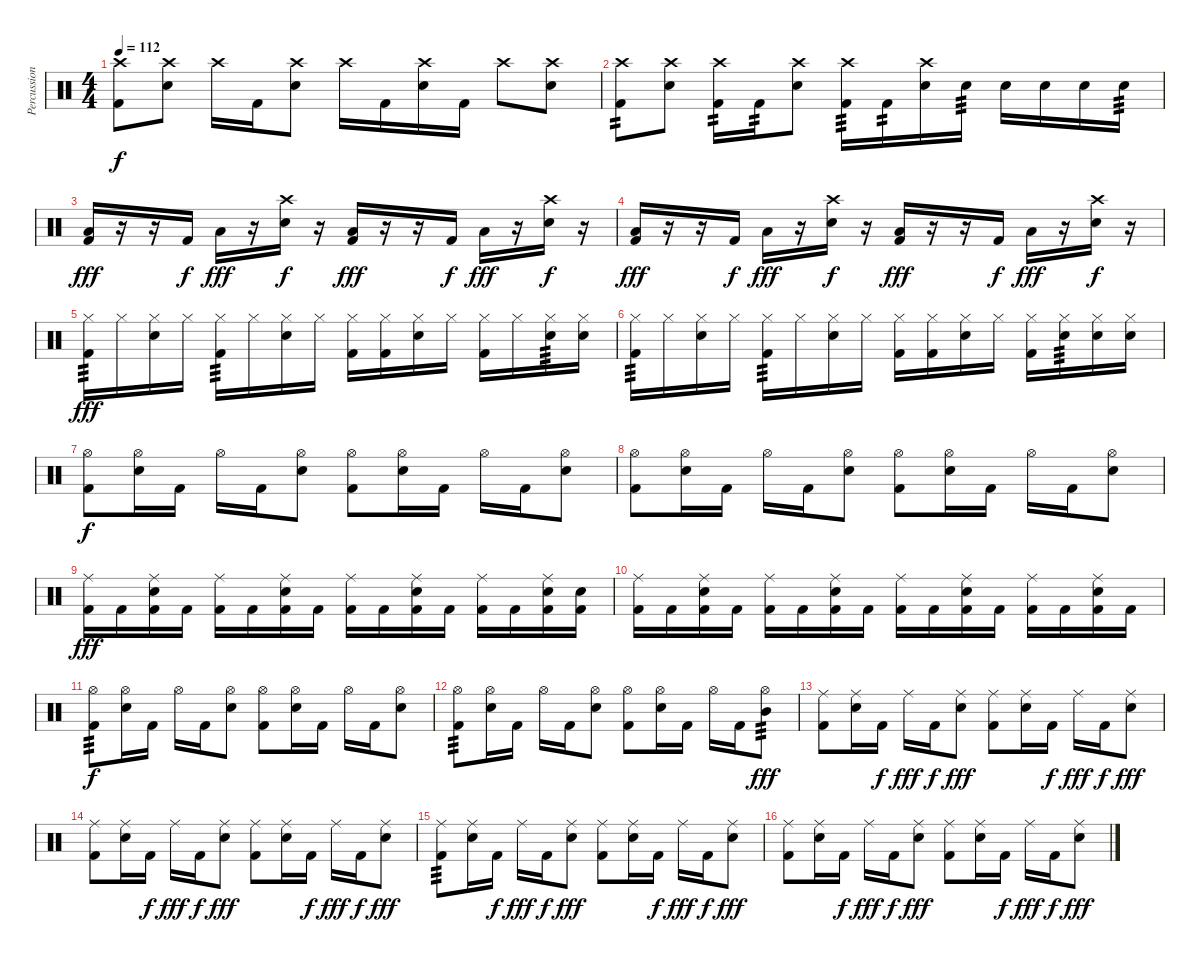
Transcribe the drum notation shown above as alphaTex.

\track ("Percussion" "Percussion") {instrument percussion}
\staff {score}
\articulation defaults
\ts (4 4)
\tempo 112
\clef neutral
\ks c
("Crash high (hit)" "Kick (hit) 2").8{dy f} ("Crash high (hit)" "Electric Snare (hit)").8 "Crash high (hit)".16 "Kick (hit) 2".16 ("Crash high (hit)" "Electric Snare (hit)").8 "Crash high (hit)".16 "Kick (hit) 2".16 ("Crash high (hit)" "Electric Snare (hit)").16 "Kick (hit) 2".16 "Crash high (hit)".8 ("Crash high (hit)" "Electric Snare (hit)").8 |
("Crash high (hit)" "Kick (hit) 2").8{tp 2} ("Crash high (hit)" "Electric Snare (hit)").8 ("Crash high (hit)" "Kick (hit) 2").16{tp 2} "Kick (hit) 2".16{tp 2} ("Crash high (hit)" "Electric Snare (hit)").8 ("Crash high (hit)" "Kick (hit) 2").16{tp 3} "Kick (hit) 2".16{tp 2} ("Crash high (hit)" "Electric Snare (hit)").16 "Electric Snare (hit)".16{tp 3} "Electric Snare (hit)".16 "Electric Snare (hit)".16 "Electric Snare (hit)".16 "Electric Snare (hit)".16{tp 3} |
("Low Tom (hit)" "Kick (hit) 2").16{dy fff} r.16 r.16 "Kick (hit) 2".16{dy f} "Low Tom (hit)".16{dy fff} r.16 ("Crash high (hit)" "Electric Snare (hit)").16{dy f} r.16 ("Low Tom (hit)" "Kick (hit) 2").16{dy fff} r.16 r.16 "Kick (hit) 2".16{dy f} "Low Tom (hit)".16{dy fff} r.16 ("Crash high (hit)" "Electric Snare (hit)").16{dy f} r.16 |
("Low Tom (hit)" "Kick (hit) 2").16{dy fff} r.16 r.16 "Kick (hit) 2".16{dy f} "Low Tom (hit)".16{dy fff} r.16 ("Crash high (hit)" "Electric Snare (hit)").16{dy f} r.16 ("Low Tom (hit)" "Kick (hit) 2").16{dy fff} r.16 r.16 "Kick (hit) 2".16{dy f} "Low Tom (hit)".16{dy fff} r.16 ("Crash high (hit)" "Electric Snare (hit)").16{dy f} r.16 |
("Hi-Hat (closed)" "Kick (hit) 2").16{tp 3 dy fff} "Hi-Hat (closed)".16 ("Hi-Hat (closed)" "Electric Snare (hit)").16 "Hi-Hat (closed)".16 ("Hi-Hat (closed)" "Kick (hit) 2").16{tp 3} "Hi-Hat (closed)".16 ("Hi-Hat (closed)" "Electric Snare (hit)").16 "Hi-Hat (closed)".16 ("Hi-Hat (closed)" "Kick (hit) 2").16 ("Hi-Hat (closed)" "Kick (hit) 2").16 ("Hi-Hat (closed)" "Electric Snare (hit)").16 "Hi-Hat (closed)".16 ("Hi-Hat (closed)" "Kick (hit) 2").16 "Hi-Hat (closed)".16 ("Hi-Hat (closed)" "Electric Snare (hit)").16{tp 3} ("Hi-Hat (closed)" "Electric Snare (hit)").16 |
("Hi-Hat (closed)" "Kick (hit) 2").16{tp 3} "Hi-Hat (closed)".16 ("Hi-Hat (closed)" "Electric Snare (hit)").16 "Hi-Hat (closed)".16 ("Hi-Hat (closed)" "Kick (hit) 2").16{tp 3} "Hi-Hat (closed)".16 ("Hi-Hat (closed)" "Electric Snare (hit)").16 "Hi-Hat (closed)".16 ("Hi-Hat (closed)" "Kick (hit) 2").16 ("Hi-Hat (closed)" "Kick (hit) 2").16 ("Hi-Hat (closed)" "Electric Snare (hit)").16 "Hi-Hat (closed)".16 ("Hi-Hat (closed)" "Kick (hit) 2").16 ("Hi-Hat (closed)" "Electric Snare (hit)").16{tp 3} ("Hi-Hat (closed)" "Electric Snare (hit)").16 ("Hi-Hat (closed)" "Electric Snare (hit)").16 |
("Hi-Hat (open)" "Kick (hit) 2").8{dy f} ("Hi-Hat (open)" "Electric Snare (hit)").16 "Kick (hit) 2".16 "Hi-Hat (open)".16 "Kick (hit) 2".16 ("Electric Snare (hit)" "Hi-Hat (open)").8 ("Hi-Hat (open)" "Kick (hit) 2").8 ("Hi-Hat (open)" "Electric Snare (hit)").16 "Kick (hit) 2".16 "Hi-Hat (open)".16 "Kick (hit) 2".16 ("Electric Snare (hit)" "Hi-Hat (open)").8 |
("Hi-Hat (open)" "Kick (hit) 2").8 ("Hi-Hat (open)" "Electric Snare (hit)").16 "Kick (hit) 2".16 "Hi-Hat (open)".16 "Kick (hit) 2".16 ("Electric Snare (hit)" "Hi-Hat (open)").8 ("Hi-Hat (open)" "Kick (hit) 2").8 ("Hi-Hat (open)" "Electric Snare (hit)").16 "Kick (hit) 2".16 "Hi-Hat (open)".16 "Kick (hit) 2".16 ("Electric Snare (hit)" "Hi-Hat (open)").8 |
("Ride (middle)" "Kick (hit) 2").16{dy fff} "Kick (hit) 2".16 ("Ride (middle)" "Electric Snare (hit)" "Kick (hit) 2").16 "Kick (hit) 2".16 ("Ride (middle)" "Kick (hit) 2").16 "Kick (hit) 2".16 ("Ride (middle)" "Electric Snare (hit)" "Kick (hit) 2").16 "Kick (hit) 2".16 ("Ride (middle)" "Kick (hit) 2").16 "Kick (hit) 2".16 ("Ride (middle)" "Electric Snare (hit)" "Kick (hit) 2").16 "Kick (hit) 2".16 ("Ride (middle)" "Kick (hit) 2").16 "Kick (hit) 2".16 ("Ride (middle)" "Electric Snare (hit)" "Kick (hit) 2").16 ("Electric Snare (hit)" "Kick (hit) 2").16 |
("Ride (middle)" "Kick (hit) 2").16 "Kick (hit) 2".16 ("Ride (middle)" "Electric Snare (hit)" "Kick (hit) 2").16 "Kick (hit) 2".16 ("Ride (middle)" "Kick (hit) 2").16 "Kick (hit) 2".16 ("Ride (middle)" "Electric Snare (hit)" "Kick (hit) 2").16 "Kick (hit) 2".16 ("Ride (middle)" "Kick (hit) 2").16 "Kick (hit) 2".16 ("Ride (middle)" "Electric Snare (hit)" "Kick (hit) 2").16 "Kick (hit) 2".16 ("Ride (middle)" "Kick (hit) 2").16 "Kick (hit) 2".16 ("Ride (middle)" "Electric Snare (hit)" "Kick (hit) 2").16 "Kick (hit) 2".16 |
("Hi-Hat (open)" "Kick (hit) 2").8{tp 3 dy f} ("Hi-Hat (open)" "Electric Snare (hit)").16 "Kick (hit) 2".16 "Hi-Hat (open)".16 "Kick (hit) 2".16 ("Electric Snare (hit)" "Hi-Hat (open)").8 ("Hi-Hat (open)" "Kick (hit) 2").8 ("Hi-Hat (open)" "Electric Snare (hit)").16 "Kick (hit) 2".16 "Hi-Hat (open)".16 "Kick (hit) 2".16 ("Electric Snare (hit)" "Hi-Hat (open)").8 |
("Hi-Hat (open)" "Kick (hit) 2").8{tp 3} ("Hi-Hat (open)" "Electric Snare (hit)").16 "Kick (hit) 2".16 "Hi-Hat (open)".16 "Kick (hit) 2".16 ("Electric Snare (hit)" "Hi-Hat (open)").8 ("Hi-Hat (open)" "Kick (hit) 2").8 ("Hi-Hat (open)" "Electric Snare (hit)").16 "Kick (hit) 2".16 "Hi-Hat (open)".16 "Kick (hit) 2".16 ("Mid Tom (hit)" "Hi-Hat (open)").8{tp 3 dy fff} |
("Ride (middle)" "Kick (hit) 2").8 ("Ride (middle)" "Electric Snare (hit)").16 "Kick (hit) 2".16{dy f} "Ride (middle)".16{dy fff} "Kick (hit) 2".16{dy f} ("Electric Snare (hit)" "Ride (middle)").8{dy fff} ("Ride (middle)" "Kick (hit) 2").8 ("Ride (middle)" "Electric Snare (hit)").16 "Kick (hit) 2".16{dy f} "Ride (middle)".16{dy fff} "Kick (hit) 2".16{dy f} ("Electric Snare (hit)" "Ride (middle)").8{dy fff} |
("Ride (middle)" "Kick (hit) 2").8 ("Ride (middle)" "Electric Snare (hit)").16 "Kick (hit) 2".16{dy f} "Ride (middle)".16{dy fff} "Kick (hit) 2".16{dy f} ("Electric Snare (hit)" "Ride (middle)").8{dy fff} ("Ride (middle)" "Kick (hit) 2").8 ("Ride (middle)" "Electric Snare (hit)").16 "Kick (hit) 2".16{dy f} "Ride (middle)".16{dy fff} "Kick (hit) 2".16{dy f} ("Electric Snare (hit)" "Ride (middle)").8{dy fff} |
("Ride (middle)" "Kick (hit) 2").8{tp 3} ("Ride (middle)" "Electric Snare (hit)").16 "Kick (hit) 2".16{dy f} "Ride (middle)".16{dy fff} "Kick (hit) 2".16{dy f} ("Electric Snare (hit)" "Ride (middle)").8{dy fff} ("Ride (middle)" "Kick (hit) 2").8 ("Ride (middle)" "Electric Snare (hit)").16 "Kick (hit) 2".16{dy f} "Ride (middle)".16{dy fff} "Kick (hit) 2".16{dy f} ("Electric Snare (hit)" "Ride (middle)").8{dy fff} |
("Ride (middle)" "Kick (hit) 2").8 ("Ride (middle)" "Electric Snare (hit)").16 "Kick (hit) 2".16{dy f} "Ride (middle)".16{dy fff} "Kick (hit) 2".16{dy f} ("Electric Snare (hit)" "Ride (middle)").8{dy fff} ("Ride (middle)" "Kick (hit) 2").8 ("Ride (middle)" "Electric Snare (hit)").16 "Kick (hit) 2".16{dy f} "Ride (middle)".16{dy fff} "Kick (hit) 2".16{dy f} ("Electric Snare (hit)" "Ride (middle)").8{dy fff}
